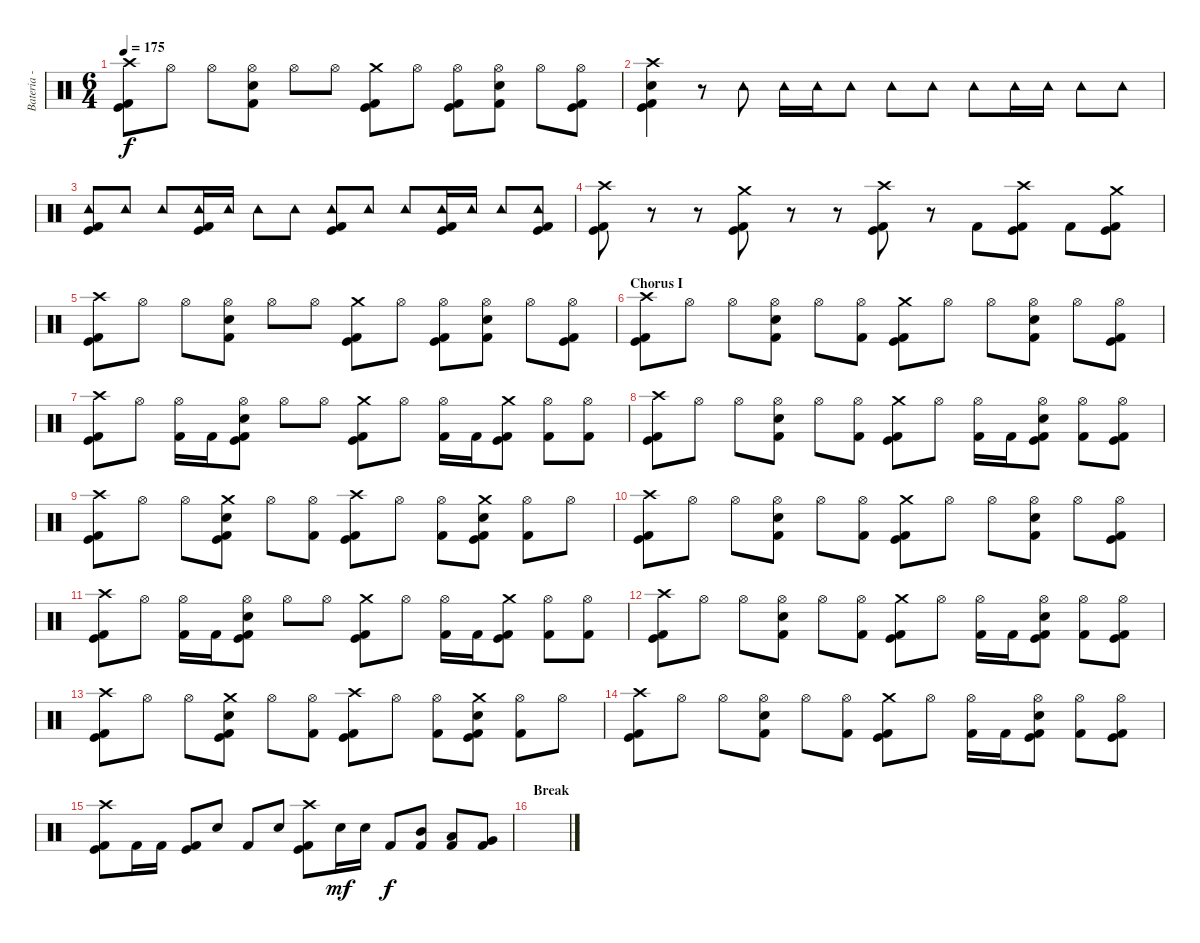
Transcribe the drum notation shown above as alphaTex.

\track ("Bateria - Drums" "Bateria - ") {instrument percussion}
\staff {score}
\articulation defaults
\ts (6 4)
\tempo 175
\clef neutral
\ks c
("Crash high (hit)" "Kick (hit)" "Kick (hit) 2").8{dy f} "Hi-Hat (open)".8 "Hi-Hat (open)".8 ("Hi-Hat (open)" "Snare (hit) 2" "Kick (hit) 2").8 "Hi-Hat (open)".8 "Hi-Hat (open)".8 ("Crash medium (hit)" "Kick (hit)" "Kick (hit) 2").8 "Hi-Hat (open)".8 ("Hi-Hat (open)" "Kick (hit)" "Kick (hit) 2").8 ("Hi-Hat (open)" "Snare (hit) 2" "Kick (hit) 2").8 "Hi-Hat (open)".8 ("Hi-Hat (open)" "Kick (hit)" "Kick (hit) 2").8 |
("Crash high (hit)" "Snare (hit) 2" "Kick (hit)" "Kick (hit) 2").4 r.8 "Tambourine (hit)".8 "Tambourine (hit)".16 "Tambourine (hit)".16 "Tambourine (hit)".8 "Tambourine (hit)".8 "Tambourine (hit)".8 "Tambourine (hit)".8 "Tambourine (hit)".16 "Tambourine (hit)".16 "Tambourine (hit)".8 "Tambourine (hit)".8 |
("Tambourine (hit)" "Kick (hit)" "Kick (hit) 2").8 "Tambourine (hit)".8 "Tambourine (hit)".8 ("Tambourine (hit)" "Kick (hit)" "Kick (hit) 2").16 "Tambourine (hit)".16 "Tambourine (hit)".8 "Tambourine (hit)".8 ("Tambourine (hit)" "Kick (hit)" "Kick (hit) 2").8 "Tambourine (hit)".8 "Tambourine (hit)".8 ("Tambourine (hit)" "Kick (hit)" "Kick (hit) 2").16 "Tambourine (hit)".16 "Tambourine (hit)".8 ("Tambourine (hit)" "Kick (hit)" "Kick (hit) 2").8 |
("Crash high (hit)" "Kick (hit)" "Kick (hit) 2").8 r.8 r.8 ("Crash medium (hit)" "Kick (hit)" "Kick (hit) 2").8 r.8 r.8 ("Crash high (hit)" "Kick (hit)" "Kick (hit) 2").8 r.8 "Kick (hit) 2".8 ("Crash high (hit)" "Kick (hit)" "Kick (hit) 2").8 "Kick (hit) 2".8 ("Crash medium (hit)" "Kick (hit)" "Kick (hit) 2").8 |
("Crash high (hit)" "Kick (hit)" "Kick (hit) 2").8 "Hi-Hat (open)".8 "Hi-Hat (open)".8 ("Hi-Hat (open)" "Snare (hit) 2" "Kick (hit) 2").8 "Hi-Hat (open)".8 "Hi-Hat (open)".8 ("Crash medium (hit)" "Kick (hit)" "Kick (hit) 2").8 "Hi-Hat (open)".8 ("Hi-Hat (open)" "Kick (hit)" "Kick (hit) 2").8 ("Hi-Hat (open)" "Snare (hit) 2" "Kick (hit) 2").8 "Hi-Hat (open)".8 ("Hi-Hat (open)" "Kick (hit)" "Kick (hit) 2").8 |
\section ("" "Chorus I")
("Crash high (hit)" "Kick (hit)" "Kick (hit) 2").8 "Hi-Hat (open)".8 "Hi-Hat (open)".8 ("Hi-Hat (open)" "Snare (hit) 2" "Kick (hit) 2").8 "Hi-Hat (open)".8 ("Hi-Hat (open)" "Kick (hit) 2").8 ("Crash medium (hit)" "Kick (hit)" "Kick (hit) 2").8 "Hi-Hat (open)".8 "Hi-Hat (open)".8 ("Hi-Hat (open)" "Snare (hit) 2" "Kick (hit) 2").8 "Hi-Hat (open)".8 ("Hi-Hat (open)" "Kick (hit)" "Kick (hit) 2").8 |
("Crash high (hit)" "Kick (hit)" "Kick (hit) 2").8 "Hi-Hat (open)".8 ("Hi-Hat (open)" "Kick (hit) 2").16 "Kick (hit) 2".16 ("Hi-Hat (open)" "Snare (hit) 2" "Kick (hit)" "Kick (hit) 2").8 "Hi-Hat (open)".8 "Hi-Hat (open)".8 ("Crash medium (hit)" "Kick (hit)" "Kick (hit) 2").8 "Hi-Hat (open)".8 ("Hi-Hat (open)" "Kick (hit) 2").16 "Kick (hit) 2".16 ("Crash medium (hit)" "Kick (hit)" "Kick (hit) 2").8 ("Hi-Hat (open)" "Kick (hit) 2").8 ("Hi-Hat (open)" "Kick (hit) 2").8 |
("Crash high (hit)" "Kick (hit)" "Kick (hit) 2").8 "Hi-Hat (open)".8 "Hi-Hat (open)".8 ("Hi-Hat (open)" "Snare (hit) 2" "Kick (hit) 2").8 "Hi-Hat (open)".8 ("Hi-Hat (open)" "Kick (hit) 2").8 ("Crash medium (hit)" "Kick (hit)" "Kick (hit) 2").8 "Hi-Hat (open)".8 ("Hi-Hat (open)" "Kick (hit) 2").16 "Kick (hit) 2".16 ("Hi-Hat (open)" "Snare (hit) 2" "Kick (hit)" "Kick (hit) 2").8 ("Hi-Hat (open)" "Kick (hit) 2").8 ("Hi-Hat (open)" "Kick (hit)" "Kick (hit) 2").8 |
("Crash high (hit)" "Kick (hit)" "Kick (hit) 2").8 "Hi-Hat (open)".8 "Hi-Hat (open)".8 ("Crash medium (hit)" "Snare (hit) 2" "Kick (hit)" "Kick (hit) 2").8 "Hi-Hat (open)".8 ("Hi-Hat (open)" "Kick (hit) 2").8 ("Crash high (hit)" "Kick (hit)" "Kick (hit) 2").8 "Hi-Hat (open)".8 ("Hi-Hat (open)" "Kick (hit) 2").8 ("Crash medium (hit)" "Snare (hit) 2" "Kick (hit)" "Kick (hit) 2").8 ("Hi-Hat (open)" "Kick (hit) 2").8 "Hi-Hat (open)".8 |
("Crash high (hit)" "Kick (hit)" "Kick (hit) 2").8 "Hi-Hat (open)".8 "Hi-Hat (open)".8 ("Hi-Hat (open)" "Snare (hit) 2" "Kick (hit) 2").8 "Hi-Hat (open)".8 ("Hi-Hat (open)" "Kick (hit) 2").8 ("Crash medium (hit)" "Kick (hit)" "Kick (hit) 2").8 "Hi-Hat (open)".8 "Hi-Hat (open)".8 ("Hi-Hat (open)" "Snare (hit) 2" "Kick (hit) 2").8 "Hi-Hat (open)".8 ("Hi-Hat (open)" "Kick (hit)" "Kick (hit) 2").8 |
("Crash high (hit)" "Kick (hit)" "Kick (hit) 2").8 "Hi-Hat (open)".8 ("Hi-Hat (open)" "Kick (hit) 2").16 "Kick (hit) 2".16 ("Hi-Hat (open)" "Snare (hit) 2" "Kick (hit)" "Kick (hit) 2").8 "Hi-Hat (open)".8 "Hi-Hat (open)".8 ("Crash medium (hit)" "Kick (hit)" "Kick (hit) 2").8 "Hi-Hat (open)".8 ("Hi-Hat (open)" "Kick (hit) 2").16 "Kick (hit) 2".16 ("Crash medium (hit)" "Kick (hit)" "Kick (hit) 2").8 ("Hi-Hat (open)" "Kick (hit) 2").8 ("Hi-Hat (open)" "Kick (hit) 2").8 |
("Crash high (hit)" "Kick (hit)" "Kick (hit) 2").8 "Hi-Hat (open)".8 "Hi-Hat (open)".8 ("Hi-Hat (open)" "Snare (hit) 2" "Kick (hit) 2").8 "Hi-Hat (open)".8 ("Hi-Hat (open)" "Kick (hit) 2").8 ("Crash medium (hit)" "Kick (hit)" "Kick (hit) 2").8 "Hi-Hat (open)".8 ("Hi-Hat (open)" "Kick (hit) 2").16 "Kick (hit) 2".16 ("Hi-Hat (open)" "Snare (hit) 2" "Kick (hit)" "Kick (hit) 2").8 ("Hi-Hat (open)" "Kick (hit) 2").8 ("Hi-Hat (open)" "Kick (hit)" "Kick (hit) 2").8 |
("Crash high (hit)" "Kick (hit)" "Kick (hit) 2").8 "Hi-Hat (open)".8 "Hi-Hat (open)".8 ("Crash medium (hit)" "Snare (hit) 2" "Kick (hit)" "Kick (hit) 2").8 "Hi-Hat (open)".8 ("Hi-Hat (open)" "Kick (hit) 2").8 ("Crash high (hit)" "Kick (hit)" "Kick (hit) 2").8 "Hi-Hat (open)".8 ("Hi-Hat (open)" "Kick (hit) 2").8 ("Crash medium (hit)" "Snare (hit) 2" "Kick (hit)" "Kick (hit) 2").8 ("Hi-Hat (open)" "Kick (hit) 2").8 "Hi-Hat (open)".8 |
("Crash high (hit)" "Kick (hit)" "Kick (hit) 2").8 "Hi-Hat (open)".8 "Hi-Hat (open)".8 ("Hi-Hat (open)" "Snare (hit) 2" "Kick (hit) 2").8 "Hi-Hat (open)".8 ("Hi-Hat (open)" "Kick (hit) 2").8 ("Crash medium (hit)" "Kick (hit)" "Kick (hit) 2").8 "Hi-Hat (open)".8 ("Hi-Hat (open)" "Kick (hit) 2").16 "Kick (hit) 2".16 ("Hi-Hat (open)" "Snare (hit) 2" "Kick (hit)" "Kick (hit) 2").8 ("Hi-Hat (open)" "Kick (hit) 2").8 ("Hi-Hat (open)" "Kick (hit)" "Kick (hit) 2").8 |
("Crash high (hit)" "Kick (hit)" "Kick (hit) 2").8 "Kick (hit) 2".16 "Kick (hit) 2".16 ("Kick (hit)" "Kick (hit) 2").8 "Snare (hit) 2".8 "Kick (hit) 2".8 "Snare (hit) 2".8 ("Crash high (hit)" "Kick (hit)" "Kick (hit) 2").8 "Snare (hit) 2".16{dy mf} "Snare (hit) 2".16 "Kick (hit) 2".8{dy f} ("Mid Tom (hit)" "Kick (hit) 2").8 ("Low Tom (hit)" "Kick (hit) 2").8 ("Very Low Tom (hit)" "Kick (hit) 2").8 |
\section ("" "Break")
